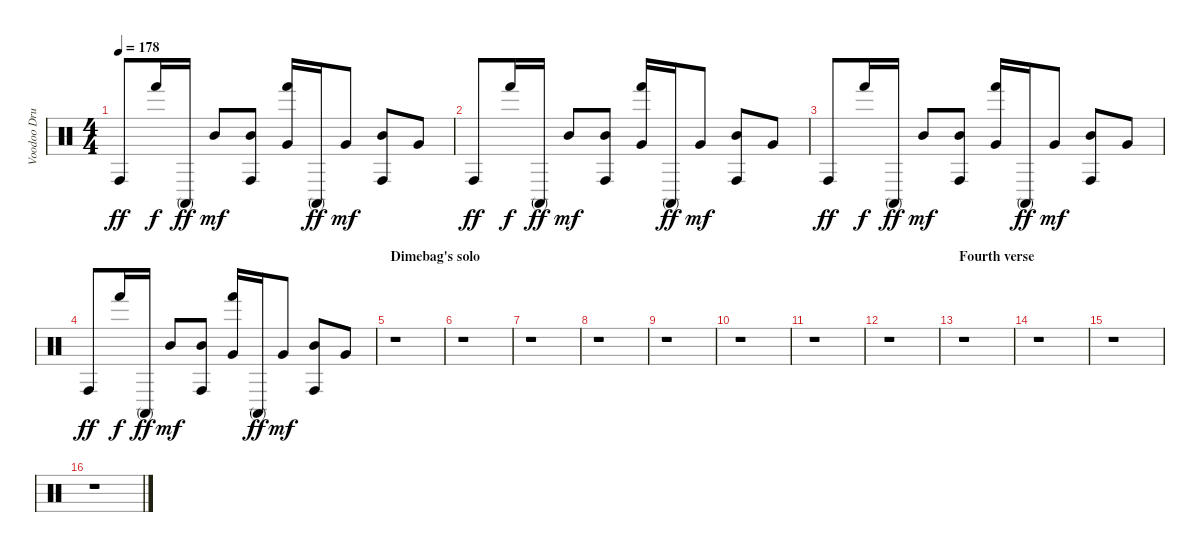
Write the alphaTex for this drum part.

\track ("Voodoo Drums" "Voodoo Dru") {instrument percussion}
\staff {score}
\articulation defaults
\ts (4 4)
\tempo 178
\clef neutral
\ks c "Conga high (hit)".8{dy ff} "Hand (hit)".16{dy f} "Conga high (mute)".16{dy ff} "Mid Tom (hit)".8{dy mf}
("Conga high (hit)" "Mid Tom (hit)").8 ("Hand (hit)" "Very Low Tom (hit)").16 "Conga high (mute)".16{dy ff} "Very Low Tom (hit)".8{dy mf} ("Conga high (hit)" "Mid Tom (hit)").8 "Very Low Tom (hit)".8 |
"Conga high (hit)".8{dy ff} "Hand (hit)".16{dy f} "Conga high (mute)".16{dy ff} "Mid Tom (hit)".8{dy mf} ("Conga high (hit)" "Mid Tom (hit)").8 ("Hand (hit)" "Very Low Tom (hit)").16 "Conga high (mute)".16{dy ff} "Very Low Tom (hit)".8{dy mf} ("Conga high (hit)" "Mid Tom (hit)").8 "Very Low Tom (hit)".8 |
"Conga high (hit)".8{dy ff} "Hand (hit)".16{dy f} "Conga high (mute)".16{dy ff} "Mid Tom (hit)".8{dy mf} ("Conga high (hit)" "Mid Tom (hit)").8 ("Hand (hit)" "Very Low Tom (hit)").16 "Conga high (mute)".16{dy ff} "Very Low Tom (hit)".8{dy mf} ("Conga high (hit)" "Mid Tom (hit)").8 "Very Low Tom (hit)".8 |
"Conga high (hit)".8{dy ff} "Hand (hit)".16{dy f} "Conga high (mute)".16{dy ff} "Mid Tom (hit)".8{dy mf} ("Conga high (hit)" "Mid Tom (hit)").8 ("Hand (hit)" "Very Low Tom (hit)").16 "Conga high (mute)".16{dy ff} "Very Low Tom (hit)".8{dy mf} ("Conga high (hit)" "Mid Tom (hit)").8 "Very Low Tom (hit)".8 |
\section ("" "Dimebag's solo")
r.1 |
r.1 |
r.1 |
r.1 |
r.1 |
r.1 |
r.1 |
r.1 |
\section ("" "Fourth verse")
r.1 |
r.1 |
r.1 |
r.1
